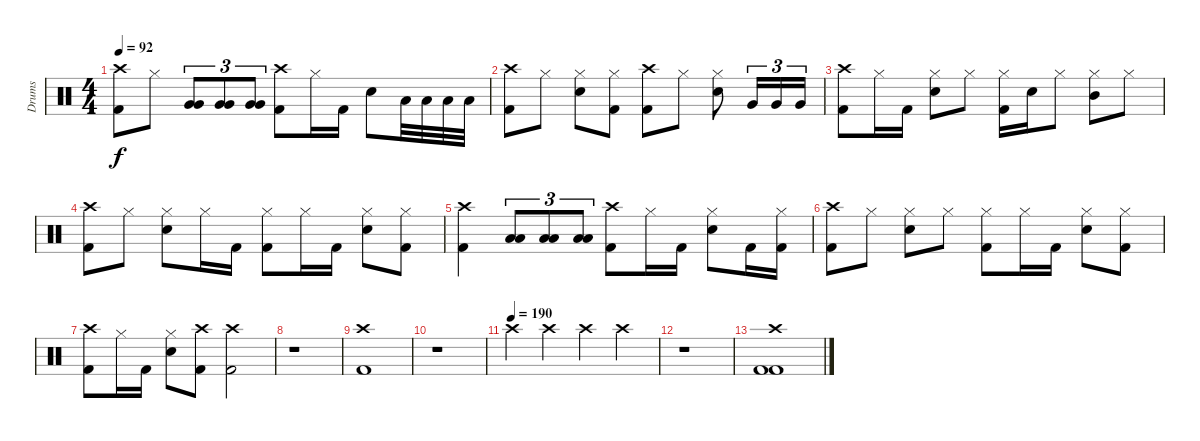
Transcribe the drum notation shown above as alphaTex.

\track ("Drums" "Drums") {instrument percussion}
\staff {score}
\articulation defaults
\ts (4 4)
\tempo 92
\clef neutral
\ks c
("Crash high (hit)" "Kick (hit) 2").8{dy f} "Hi-Hat (closed)".8 ("Very Low Tom (hit)" "Very Low Tom (hit)").8{tu (3 2)} ("Very Low Tom (hit)" "Very Low Tom (hit)").8{tu (3 2)} ("Very Low Tom (hit)" "Very Low Tom (hit)").8{tu (3 2)} ("Crash high (hit)" "Kick (hit) 2").8 "Hi-Hat (closed)".16 "Kick (hit) 2".16 "Electric Snare (hit)".8 "Low Tom (hit)".32 "Low Tom (hit)".32 "Low Tom (hit)".32 "Low Tom (hit)".32 |
("Crash high (hit)" "Kick (hit) 2").8 "Hi-Hat (closed)".8 ("Hi-Hat (closed)" "Electric Snare (hit)").8 ("Hi-Hat (closed)" "Kick (hit) 2").8 ("Crash high (hit)" "Kick (hit) 2").8 "Hi-Hat (closed)".8 ("Hi-Hat (closed)" "Electric Snare (hit)").8 "Very Low Tom (hit)".16{tu (3 2)} "Very Low Tom (hit)".16{tu (3 2)} "Very Low Tom (hit)".16{tu (3 2)} |
("Crash high (hit)" "Kick (hit) 2").8 "Hi-Hat (closed)".16 "Kick (hit) 2".16 ("Hi-Hat (closed)" "Electric Snare (hit)").8 "Hi-Hat (closed)".8 ("Hi-Hat (closed)" "Kick (hit) 2").16 "Electric Snare (hit)".16 "Hi-Hat (closed)".8 ("Hi-Hat (closed)" "Mid Tom (hit)").8 "Hi-Hat (closed)".8 |
("Crash high (hit)" "Kick (hit) 2").8 "Hi-Hat (closed)".8 ("Hi-Hat (closed)" "Electric Snare (hit)").8 "Hi-Hat (closed)".16 "Kick (hit) 2".16 ("Hi-Hat (closed)" "Kick (hit) 2").8 "Hi-Hat (closed)".16 "Kick (hit) 2".16 ("Hi-Hat (closed)" "Electric Snare (hit)").8 ("Hi-Hat (closed)" "Kick (hit) 2").8 |
("Crash high (hit)" "Kick (hit) 2").4 ("Low Tom (hit)" "Low Tom (hit)").8{tu (3 2)} ("Low Tom (hit)" "Low Tom (hit)").8{tu (3 2)} ("Low Tom (hit)" "Low Tom (hit)").8{tu (3 2)} ("Crash high (hit)" "Kick (hit) 2").8 "Hi-Hat (closed)".16 "Kick (hit) 2".16 ("Hi-Hat (closed)" "Electric Snare (hit)").8 "Kick (hit) 2".16 ("Hi-Hat (closed)" "Kick (hit) 2").16 |
("Crash high (hit)" "Kick (hit) 2").8 "Hi-Hat (closed)".8 ("Hi-Hat (closed)" "Electric Snare (hit)").8 "Hi-Hat (closed)".8 ("Hi-Hat (closed)" "Kick (hit) 2").8 "Hi-Hat (closed)".16 "Kick (hit) 2".16 ("Hi-Hat (closed)" "Electric Snare (hit)").8 ("Hi-Hat (closed)" "Kick (hit) 2").8 |
("Crash high (hit)" "Kick (hit) 2").8 "Hi-Hat (closed)".16 "Kick (hit) 2".16 ("Hi-Hat (closed)" "Electric Snare (hit)").8 ("Crash high (hit)" "Kick (hit) 2").8 ("Crash high (hit)" "Kick (hit) 2").2 |
r.1 |
("Crash high (hit)" "Kick (hit) 2").1 |
r.1 |
\tempo (190)
"Crash high (hit)".4 "Crash high (hit)".4 "Crash high (hit)".4 "Crash high (hit)".4 |
r.1 |
("Crash high (hit)" "Kick (hit) 2" "Kick (hit) 2").1
